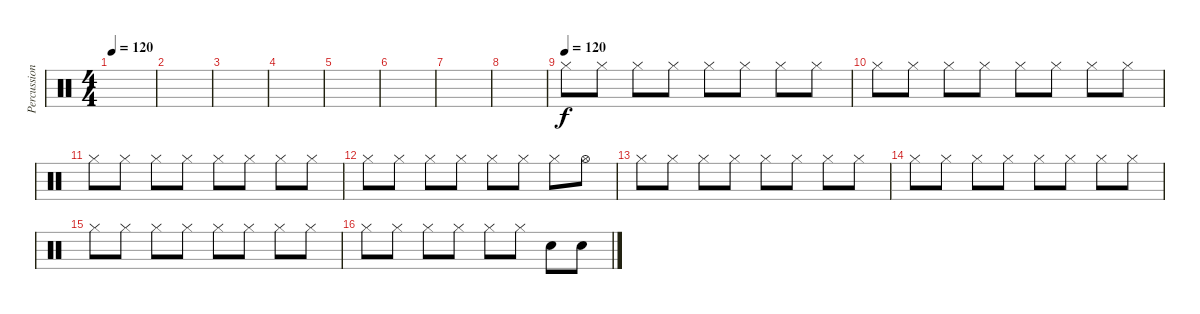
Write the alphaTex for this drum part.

\track ("Percussion" "Percussion") {instrument percussion}
\staff {score}
\articulation defaults
\ts (4 4)
\tempo 120
\tempo 80
\tempo 120
\clef neutral
\ks c
|
|
|
|
|
|
|
|
\tempo (120)
"Hi-Hat (closed)".8 "Hi-Hat (closed)".8 "Hi-Hat (closed)".8 "Hi-Hat (closed)".8 "Hi-Hat (closed)".8 "Hi-Hat (closed)".8 "Hi-Hat (closed)".8 "Hi-Hat (closed)".8 |
"Hi-Hat (closed)".8 "Hi-Hat (closed)".8 "Hi-Hat (closed)".8 "Hi-Hat (closed)".8 "Hi-Hat (closed)".8 "Hi-Hat (closed)".8 "Hi-Hat (closed)".8 "Hi-Hat (closed)".8 |
"Hi-Hat (closed)".8 "Hi-Hat (closed)".8 "Hi-Hat (closed)".8 "Hi-Hat (closed)".8 "Hi-Hat (closed)".8 "Hi-Hat (closed)".8 "Hi-Hat (closed)".8 "Hi-Hat (closed)".8 |
"Hi-Hat (closed)".8 "Hi-Hat (closed)".8 "Hi-Hat (closed)".8 "Hi-Hat (closed)".8 "Hi-Hat (closed)".8 "Hi-Hat (closed)".8 "Hi-Hat (closed)".8 "Hi-Hat (open)".8 |
"Hi-Hat (closed)".8 "Hi-Hat (closed)".8 "Hi-Hat (closed)".8 "Hi-Hat (closed)".8 "Hi-Hat (closed)".8 "Hi-Hat (closed)".8 "Hi-Hat (closed)".8 "Hi-Hat (closed)".8 |
"Hi-Hat (closed)".8 "Hi-Hat (closed)".8 "Hi-Hat (closed)".8 "Hi-Hat (closed)".8 "Hi-Hat (closed)".8 "Hi-Hat (closed)".8 "Hi-Hat (closed)".8 "Hi-Hat (closed)".8 |
"Hi-Hat (closed)".8 "Hi-Hat (closed)".8 "Hi-Hat (closed)".8 "Hi-Hat (closed)".8 "Hi-Hat (closed)".8 "Hi-Hat (closed)".8 "Hi-Hat (closed)".8 "Hi-Hat (closed)".8 |
"Hi-Hat (closed)".8 "Hi-Hat (closed)".8 "Hi-Hat (closed)".8 "Hi-Hat (closed)".8 "Hi-Hat (closed)".8 "Hi-Hat (closed)".8 "Snare (hit) 2".8 "Snare (hit) 2".8
